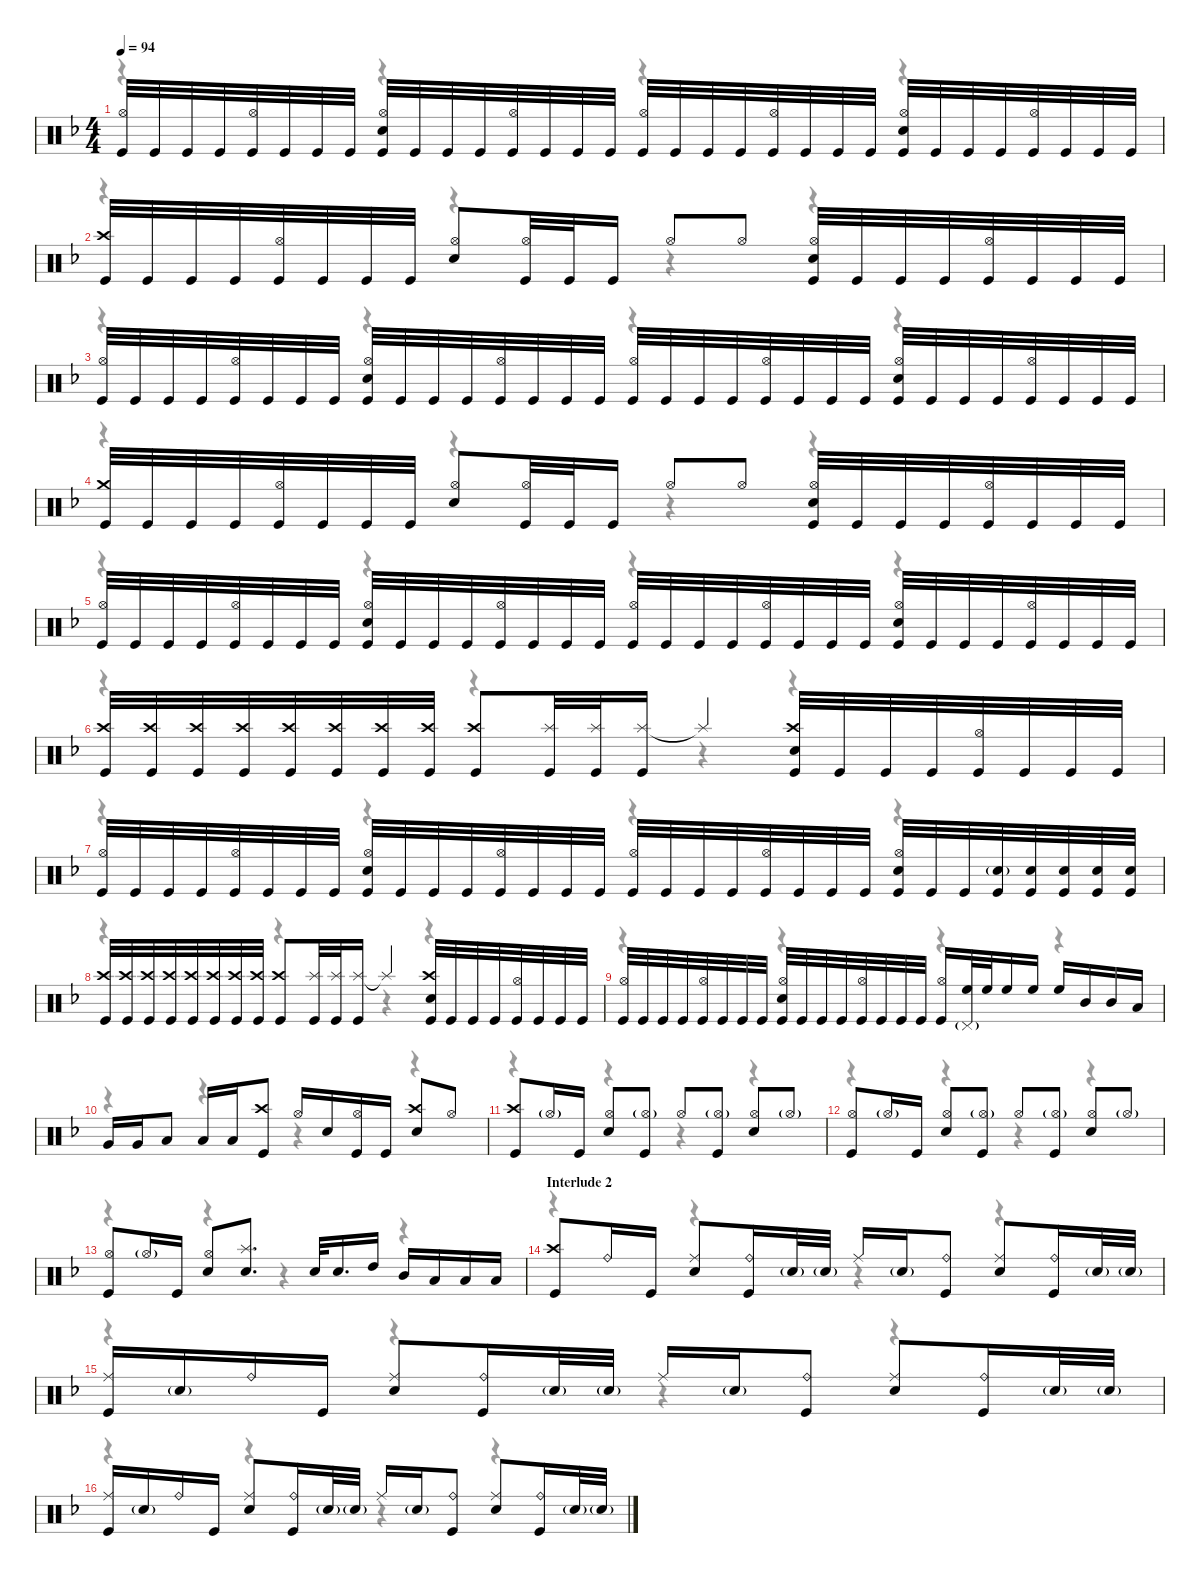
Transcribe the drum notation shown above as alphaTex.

\defaultSystemsLayout 4
\hideDynamics
\bracketExtendMode nobrackets
\singleTrackTrackNamePolicy hidden
\multiTrackTrackNamePolicy hidden
\otherSystemsTrackNameOrientation horizontal
\track ("M. Lopez" "drm.") {instrument percussion}
\staff {score}
\articulation defaults
\voice
\ts (4 4)
\tempo 94
\clef neutral
\ks dminor
("Hi-Hat (open)"{acc forcenatural} "Kick (hit)"{acc forcenatural}).32{dy f beam Up} "Kick (hit)"{acc forcenatural}.32{beam Up} "Kick (hit)"{acc forcenatural}.32{beam Up} "Kick (hit)"{acc forcenatural}.32{beam Up} ("Hi-Hat (open)"{acc forcenatural} "Kick (hit)"{acc forcenatural}).32{beam Up} "Kick (hit)"{acc forcenatural}.32{beam Up} "Kick (hit)"{acc forcenatural}.32{beam Up} "Kick (hit)"{acc forcenatural}.32{beam Up} ("Hi-Hat (open)"{acc forcenatural} "Snare (hit) 2"{acc forcenatural} "Kick (hit)"{acc forcenatural}).32{beam Up} "Kick (hit)"{acc forcenatural}.32{beam Up} "Kick (hit)"{acc forcenatural}.32{beam Up} "Kick (hit)"{acc forcenatural}.32{beam Up} ("Hi-Hat (open)"{acc forcenatural} "Kick (hit)"{acc forcenatural}).32{beam Up} "Kick (hit)"{acc forcenatural}.32{beam Up} "Kick (hit)"{acc forcenatural}.32{beam Up} "Kick (hit)"{acc forcenatural}.32{beam Up} ("Hi-Hat (open)"{acc forcenatural} "Kick (hit)"{acc forcenatural}).32{beam Up} "Kick (hit)"{acc forcenatural}.32{beam Up} "Kick (hit)"{acc forcenatural}.32{beam Up} "Kick (hit)"{acc forcenatural}.32{beam Up} ("Hi-Hat (open)"{acc forcenatural} "Kick (hit)"{acc forcenatural}).32{beam Up} "Kick (hit)"{acc forcenatural}.32{beam Up} "Kick (hit)"{acc forcenatural}.32{beam Up} "Kick (hit)"{acc forcenatural}.32{beam Up} ("Hi-Hat (open)"{acc forcenatural} "Snare (hit) 2"{acc forcenatural} "Kick (hit)"{acc forcenatural}).32{beam Up} "Kick (hit)"{acc forcenatural}.32{beam Up} "Kick (hit)"{acc forcenatural}.32{beam Up} "Kick (hit)"{acc forcenatural}.32{beam Up} ("Hi-Hat (open)"{acc forcenatural} "Kick (hit)"{acc forcenatural}).32{beam Up} "Kick (hit)"{acc forcenatural}.32{beam Up} "Kick (hit)"{acc forcenatural}.32{beam Up} "Kick (hit)"{acc forcenatural}.32{beam Up} |
("Crash high (hit)"{acc forcenatural} "Kick (hit)"{acc forcenatural}).32{beam Up} "Kick (hit)"{acc forcenatural}.32{beam Up} "Kick (hit)"{acc forcenatural}.32{beam Up} "Kick (hit)"{acc forcenatural}.32{beam Up} ("Hi-Hat (open)"{acc forcenatural} "Kick (hit)"{acc forcenatural}).32{beam Up} "Kick (hit)"{acc forcenatural}.32{beam Up} "Kick (hit)"{acc forcenatural}.32{beam Up} "Kick (hit)"{acc forcenatural}.32{beam Up} ("Hi-Hat (open)"{acc forcenatural} "Snare (hit) 2"{acc forcenatural}).8{beam Up} ("Hi-Hat (open)"{acc forcenatural} "Kick (hit)"{acc forcenatural}).32{beam Up} "Kick (hit)"{acc forcenatural}.32{beam Up} "Kick (hit)"{acc forcenatural}.16{beam Up} "Hi-Hat (open)"{acc forcenatural}.8{beam Up} "Hi-Hat (open)"{acc forcenatural}.8{beam Up} ("Hi-Hat (open)"{acc forcenatural} "Snare (hit) 2"{acc forcenatural} "Kick (hit)"{acc forcenatural}).32{beam Up} "Kick (hit)"{acc forcenatural}.32{beam Up} "Kick (hit)"{acc forcenatural}.32{beam Up} "Kick (hit)"{acc forcenatural}.32{beam Up} ("Hi-Hat (open)"{acc forcenatural} "Kick (hit)"{acc forcenatural}).32{beam Up} "Kick (hit)"{acc forcenatural}.32{beam Up} "Kick (hit)"{acc forcenatural}.32{beam Up} "Kick (hit)"{acc forcenatural}.32{beam Up} |
("Hi-Hat (open)"{acc forcenatural} "Kick (hit)"{acc forcenatural}).32{beam Up} "Kick (hit)"{acc forcenatural}.32{beam Up} "Kick (hit)"{acc forcenatural}.32{beam Up} "Kick (hit)"{acc forcenatural}.32{beam Up} ("Hi-Hat (open)"{acc forcenatural} "Kick (hit)"{acc forcenatural}).32{beam Up} "Kick (hit)"{acc forcenatural}.32{beam Up} "Kick (hit)"{acc forcenatural}.32{beam Up} "Kick (hit)"{acc forcenatural}.32{beam Up} ("Hi-Hat (open)"{acc forcenatural} "Snare (hit) 2"{acc forcenatural} "Kick (hit)"{acc forcenatural}).32{beam Up} "Kick (hit)"{acc forcenatural}.32{beam Up} "Kick (hit)"{acc forcenatural}.32{beam Up} "Kick (hit)"{acc forcenatural}.32{beam Up} ("Hi-Hat (open)"{acc forcenatural} "Kick (hit)"{acc forcenatural}).32{beam Up} "Kick (hit)"{acc forcenatural}.32{beam Up} "Kick (hit)"{acc forcenatural}.32{beam Up} "Kick (hit)"{acc forcenatural}.32{beam Up} ("Hi-Hat (open)"{acc forcenatural} "Kick (hit)"{acc forcenatural}).32{beam Up} "Kick (hit)"{acc forcenatural}.32{beam Up} "Kick (hit)"{acc forcenatural}.32{beam Up} "Kick (hit)"{acc forcenatural}.32{beam Up} ("Hi-Hat (open)"{acc forcenatural} "Kick (hit)"{acc forcenatural}).32{beam Up} "Kick (hit)"{acc forcenatural}.32{beam Up} "Kick (hit)"{acc forcenatural}.32{beam Up} "Kick (hit)"{acc forcenatural}.32{beam Up} ("Hi-Hat (open)"{acc forcenatural} "Snare (hit) 2"{acc forcenatural} "Kick (hit)"{acc forcenatural}).32{beam Up} "Kick (hit)"{acc forcenatural}.32{beam Up} "Kick (hit)"{acc forcenatural}.32{beam Up} "Kick (hit)"{acc forcenatural}.32{beam Up} ("Hi-Hat (open)"{acc forcenatural} "Kick (hit)"{acc forcenatural}).32{beam Up} "Kick (hit)"{acc forcenatural}.32{beam Up} "Kick (hit)"{acc forcenatural}.32{beam Up} "Kick (hit)"{acc forcenatural}.32{beam Up} |
("Crash medium (hit)"{acc forcenatural} "Kick (hit)"{acc forcenatural}).32{beam Up} "Kick (hit)"{acc forcenatural}.32{beam Up} "Kick (hit)"{acc forcenatural}.32{beam Up} "Kick (hit)"{acc forcenatural}.32{beam Up} ("Hi-Hat (open)"{acc forcenatural} "Kick (hit)"{acc forcenatural}).32{beam Up} "Kick (hit)"{acc forcenatural}.32{beam Up} "Kick (hit)"{acc forcenatural}.32{beam Up} "Kick (hit)"{acc forcenatural}.32{beam Up} ("Hi-Hat (open)"{acc forcenatural} "Snare (hit) 2"{acc forcenatural}).8{beam Up} ("Hi-Hat (open)"{acc forcenatural} "Kick (hit)"{acc forcenatural}).32{beam Up} "Kick (hit)"{acc forcenatural}.32{beam Up} "Kick (hit)"{acc forcenatural}.16{beam Up} "Hi-Hat (open)"{acc forcenatural}.8{beam Up} "Hi-Hat (open)"{acc forcenatural}.8{beam Up} ("Hi-Hat (open)"{acc forcenatural} "Snare (hit) 2"{acc forcenatural} "Kick (hit)"{acc forcenatural}).32{beam Up} "Kick (hit)"{acc forcenatural}.32{beam Up} "Kick (hit)"{acc forcenatural}.32{beam Up} "Kick (hit)"{acc forcenatural}.32{beam Up} ("Hi-Hat (open)"{acc forcenatural} "Kick (hit)"{acc forcenatural}).32{beam Up} "Kick (hit)"{acc forcenatural}.32{beam Up} "Kick (hit)"{acc forcenatural}.32{beam Up} "Kick (hit)"{acc forcenatural}.32{beam Up} |
("Hi-Hat (open)"{acc forcenatural} "Kick (hit)"{acc forcenatural}).32{beam Up} "Kick (hit)"{acc forcenatural}.32{beam Up} "Kick (hit)"{acc forcenatural}.32{beam Up} "Kick (hit)"{acc forcenatural}.32{beam Up} ("Hi-Hat (open)"{acc forcenatural} "Kick (hit)"{acc forcenatural}).32{beam Up} "Kick (hit)"{acc forcenatural}.32{beam Up} "Kick (hit)"{acc forcenatural}.32{beam Up} "Kick (hit)"{acc forcenatural}.32{beam Up} ("Hi-Hat (open)"{acc forcenatural} "Snare (hit) 2"{acc forcenatural} "Kick (hit)"{acc forcenatural}).32{beam Up} "Kick (hit)"{acc forcenatural}.32{beam Up} "Kick (hit)"{acc forcenatural}.32{beam Up} "Kick (hit)"{acc forcenatural}.32{beam Up} ("Hi-Hat (open)"{acc forcenatural} "Kick (hit)"{acc forcenatural}).32{beam Up} "Kick (hit)"{acc forcenatural}.32{beam Up} "Kick (hit)"{acc forcenatural}.32{beam Up} "Kick (hit)"{acc forcenatural}.32{beam Up} ("Hi-Hat (open)"{acc forcenatural} "Kick (hit)"{acc forcenatural}).32{beam Up} "Kick (hit)"{acc forcenatural}.32{beam Up} "Kick (hit)"{acc forcenatural}.32{beam Up} "Kick (hit)"{acc forcenatural}.32{beam Up} ("Hi-Hat (open)"{acc forcenatural} "Kick (hit)"{acc forcenatural}).32{beam Up} "Kick (hit)"{acc forcenatural}.32{beam Up} "Kick (hit)"{acc forcenatural}.32{beam Up} "Kick (hit)"{acc forcenatural}.32{beam Up} ("Hi-Hat (open)"{acc forcenatural} "Snare (hit) 2"{acc forcenatural} "Kick (hit)"{acc forcenatural}).32{beam Up} "Kick (hit)"{acc forcenatural}.32{beam Up} "Kick (hit)"{acc forcenatural}.32{beam Up} "Kick (hit)"{acc forcenatural}.32{beam Up} ("Hi-Hat (open)"{acc forcenatural} "Kick (hit)"{acc forcenatural}).32{beam Up} "Kick (hit)"{acc forcenatural}.32{beam Up} "Kick (hit)"{acc forcenatural}.32{beam Up} "Kick (hit)"{acc forcenatural}.32{beam Up} |
("Crash high (hit)"{acc forcenatural} "Kick (hit)"{acc forcenatural}).32{dy mf beam Up} ("Crash high (hit)"{acc forcenatural} "Kick (hit)"{acc forcenatural}).32{beam Up} ("Crash high (hit)"{acc forcenatural} "Kick (hit)"{acc forcenatural}).32{beam Up} ("Crash high (hit)"{acc forcenatural} "Kick (hit)"{acc forcenatural}).32{beam Up} ("Crash high (hit)"{acc forcenatural} "Kick (hit)"{acc forcenatural}).32{beam Up} ("Crash high (hit)"{acc forcenatural} "Kick (hit)"{acc forcenatural}).32{beam Up} ("Crash high (hit)"{acc forcenatural} "Kick (hit)"{acc forcenatural}).32{beam Up} ("Crash high (hit)"{acc forcenatural} "Kick (hit)"{acc forcenatural}).32{beam Up} ("Crash high (hit)"{acc forcenatural} "Kick (hit)"{acc forcenatural}).8{beam Up} ("Splash (hit)"{acc forcenatural} "Kick (hit)"{acc forcenatural}).32{dy f beam Up} ("Splash (hit)"{acc forcenatural} "Kick (hit)"{acc forcenatural}).32{beam Up} ("Splash (hit)"{acc forcenatural} "Kick (hit)"{acc forcenatural}).16{beam Up} "Splash (hit)"{t acc forcenatural}.4{beam Up} ("Crash high (hit)"{acc forcenatural} "Snare (hit) 2"{acc forcenatural} "Kick (hit)"{acc forcenatural}).32{beam Up} "Kick (hit)"{acc forcenatural}.32{beam Up} "Kick (hit)"{acc forcenatural}.32{beam Up} "Kick (hit)"{acc forcenatural}.32{beam Up} ("Hi-Hat (open)"{acc forcenatural} "Kick (hit)"{acc forcenatural}).32{beam Up} "Kick (hit)"{acc forcenatural}.32{beam Up} "Kick (hit)"{acc forcenatural}.32{beam Up} "Kick (hit)"{acc forcenatural}.32{beam Up} |
("Hi-Hat (open)"{acc forcenatural} "Kick (hit)"{acc forcenatural}).32{beam Up} "Kick (hit)"{acc forcenatural}.32{beam Up} "Kick (hit)"{acc forcenatural}.32{beam Up} "Kick (hit)"{acc forcenatural}.32{beam Up} ("Hi-Hat (open)"{acc forcenatural} "Kick (hit)"{acc forcenatural}).32{beam Up} "Kick (hit)"{acc forcenatural}.32{beam Up} "Kick (hit)"{acc forcenatural}.32{beam Up} "Kick (hit)"{acc forcenatural}.32{beam Up} ("Hi-Hat (open)"{acc forcenatural} "Snare (hit) 2"{acc forcenatural} "Kick (hit)"{acc forcenatural}).32{beam Up} "Kick (hit)"{acc forcenatural}.32{beam Up} "Kick (hit)"{acc forcenatural}.32{beam Up} "Kick (hit)"{acc forcenatural}.32{beam Up} ("Hi-Hat (open)"{acc forcenatural} "Kick (hit)"{acc forcenatural}).32{beam Up} "Kick (hit)"{acc forcenatural}.32{beam Up} "Kick (hit)"{acc forcenatural}.32{beam Up} "Kick (hit)"{acc forcenatural}.32{beam Up} ("Hi-Hat (open)"{acc forcenatural} "Kick (hit)"{acc forcenatural}).32{beam Up} "Kick (hit)"{acc forcenatural}.32{beam Up} "Kick (hit)"{acc forcenatural}.32{beam Up} "Kick (hit)"{acc forcenatural}.32{beam Up} ("Hi-Hat (open)"{acc forcenatural} "Kick (hit)"{acc forcenatural}).32{beam Up} "Kick (hit)"{acc forcenatural}.32{beam Up} "Kick (hit)"{acc forcenatural}.32{beam Up} "Kick (hit)"{acc forcenatural}.32{beam Up} ("Hi-Hat (open)"{acc forcenatural} "Snare (hit) 2"{acc forcenatural} "Kick (hit)"{acc forcenatural}).32{beam Up} "Kick (hit)"{acc forcenatural}.32{beam Up} "Kick (hit)"{acc forcenatural}.32{beam Up} ("Snare (hit) 2"{g acc forcenatural} "Kick (hit)"{acc forcenatural}).32{beam Up} ("Snare (hit) 2"{acc forcenatural} "Kick (hit)"{acc forcenatural}).32{dy mf beam Up} ("Snare (hit) 2"{acc forcenatural} "Kick (hit)"{acc forcenatural}).32{dy f beam Up} ("Snare (hit) 2"{acc forcenatural} "Kick (hit)"{acc forcenatural}).32{beam Up} ("Snare (hit) 2"{acc forcenatural} "Kick (hit)"{acc forcenatural}).32{beam Up} |
("Crash high (hit)"{acc forcenatural} "Kick (hit)"{acc forcenatural}).32{dy mf beam Up} ("Crash high (hit)"{acc forcenatural} "Kick (hit)"{acc forcenatural}).32{beam Up} ("Crash high (hit)"{acc forcenatural} "Kick (hit)"{acc forcenatural}).32{beam Up} ("Crash high (hit)"{acc forcenatural} "Kick (hit)"{acc forcenatural}).32{beam Up} ("Crash high (hit)"{acc forcenatural} "Kick (hit)"{acc forcenatural}).32{beam Up} ("Crash high (hit)"{acc forcenatural} "Kick (hit)"{acc forcenatural}).32{beam Up} ("Crash high (hit)"{acc forcenatural} "Kick (hit)"{acc forcenatural}).32{beam Up} ("Crash high (hit)"{acc forcenatural} "Kick (hit)"{acc forcenatural}).32{beam Up} ("Crash high (hit)"{acc forcenatural} "Kick (hit)"{acc forcenatural}).8{beam Up} ("Splash (hit)"{acc forcenatural} "Kick (hit)"{acc forcenatural}).32{dy f beam Up} ("Splash (hit)"{acc forcenatural} "Kick (hit)"{acc forcenatural}).32{beam Up} ("Splash (hit)"{acc forcenatural} "Kick (hit)"{acc forcenatural}).16{beam Up} "Splash (hit)"{t acc forcenatural}.4{beam Up} ("Crash high (hit)"{acc forcenatural} "Snare (hit) 2"{acc forcenatural} "Kick (hit)"{acc forcenatural}).32{beam Up} "Kick (hit)"{acc forcenatural}.32{beam Up} "Kick (hit)"{acc forcenatural}.32{beam Up} "Kick (hit)"{acc forcenatural}.32{beam Up} ("Hi-Hat (open)"{acc forcenatural} "Kick (hit)"{acc forcenatural}).32{beam Up} "Kick (hit)"{acc forcenatural}.32{beam Up} "Kick (hit)"{acc forcenatural}.32{beam Up} "Kick (hit)"{acc forcenatural}.32{beam Up} |
("Hi-Hat (open)"{acc forcenatural} "Kick (hit)"{acc forcenatural}).32{beam Up} "Kick (hit)"{acc forcenatural}.32{beam Up} "Kick (hit)"{acc forcenatural}.32{beam Up} "Kick (hit)"{acc forcenatural}.32{beam Up} ("Hi-Hat (open)"{acc forcenatural} "Kick (hit)"{acc forcenatural}).32{beam Up} "Kick (hit)"{acc forcenatural}.32{beam Up} "Kick (hit)"{acc forcenatural}.32{beam Up} "Kick (hit)"{acc forcenatural}.32{beam Up} ("Hi-Hat (open)"{acc forcenatural} "Snare (hit) 2"{acc forcenatural} "Kick (hit)"{acc forcenatural}).32{beam Up} "Kick (hit)"{acc forcenatural}.32{beam Up} "Kick (hit)"{acc forcenatural}.32{beam Up} "Kick (hit)"{acc forcenatural}.32{beam Up} ("Hi-Hat (open)"{acc forcenatural} "Kick (hit)"{acc forcenatural}).32{beam Up} "Kick (hit)"{acc forcenatural}.32{beam Up} "Kick (hit)"{acc forcenatural}.32{beam Up} "Kick (hit)"{acc forcenatural}.32{beam Up} ("Hi-Hat (open)"{acc forcenatural} "Kick (hit)"{acc forcenatural}).16{beam Up} ("Pedal Hi-Hat (hit)"{g acc forcenatural} "High Floor Tom (hit)"{acc forcenatural}).32{dy mf beam Up} "High Floor Tom (hit)"{acc forcenatural}.32{beam Up} "High Floor Tom (hit)"{acc forcenatural}.16{dy f beam Up} "High Floor Tom (hit)"{acc forcenatural}.16{beam Up} "High Floor Tom (hit)"{acc forcenatural}.16{beam Up} "Mid Tom (hit)"{acc forcenatural}.16{beam Up} "Mid Tom (hit)"{acc forcenatural}.16{beam Up} "Low Tom (hit)"{acc forcenatural}.16{beam Up} |
"Very Low Tom (hit)"{acc forcenatural}.16{beam Up} "Very Low Tom (hit)"{acc forcenatural}.16{beam Up} "Low Floor Tom (hit)"{acc forcenatural}.8{beam Up} "Low Floor Tom (hit)"{acc forcenatural}.16{beam Up} "Low Floor Tom (hit)"{acc forcenatural}.16{beam Up} ("Crash high (hit)"{acc forcenatural} "Kick (hit)"{acc forcenatural}).8{beam Up} "Hi-Hat (open)"{acc forcenatural}.16{beam Up} "Snare (hit) 2"{acc forcenatural}.16{beam Up} ("Hi-Hat (open)"{acc forcenatural} "Kick (hit)"{acc forcenatural}).16{beam Up} "Kick (hit)"{acc forcenatural}.16{beam Up} ("Crash high (hit)"{acc forcenatural} "Snare (hit) 2"{acc forcenatural}).8{beam Up} "Hi-Hat (open)"{acc forcenatural}.8{beam Up} |
("Crash high (hit)"{acc forcenatural} "Kick (hit)"{acc forcenatural}).8{beam Up} "Hi-Hat (open)"{g acc forcenatural}.16{dy ff beam Up} "Kick (hit)"{acc forcenatural}.16{dy f beam Up} ("Hi-Hat (open)"{acc forcenatural} "Snare (hit) 2"{acc forcenatural}).8{beam Up} ("Hi-Hat (open)"{g acc forcenatural} "Kick (hit)"{acc forcenatural}).8{beam Up} "Hi-Hat (open)"{acc forcenatural}.8{beam Up} ("Hi-Hat (open)"{g acc forcenatural} "Kick (hit)"{acc forcenatural}).8{beam Up} ("Hi-Hat (open)"{acc forcenatural} "Snare (hit) 2"{acc forcenatural}).8{beam Up} "Hi-Hat (open)"{g acc forcenatural}.8{dy ff beam Up} |
("Hi-Hat (open)"{acc forcenatural} "Kick (hit)"{acc forcenatural}).8{dy f beam Up} "Hi-Hat (open)"{g acc forcenatural}.16{dy ff beam Up} "Kick (hit)"{acc forcenatural}.16{dy f beam Up} ("Hi-Hat (open)"{acc forcenatural} "Snare (hit) 2"{acc forcenatural}).8{beam Up} ("Hi-Hat (open)"{g acc forcenatural} "Kick (hit)"{acc forcenatural}).8{beam Up} "Hi-Hat (open)"{acc forcenatural}.8{beam Up} ("Hi-Hat (open)"{g acc forcenatural} "Kick (hit)"{acc forcenatural}).8{beam Up} ("Hi-Hat (open)"{acc forcenatural} "Snare (hit) 2"{acc forcenatural}).8{beam Up} "Hi-Hat (open)"{g acc forcenatural}.8{dy ff beam Up} |
("Hi-Hat (open)"{acc forcenatural} "Kick (hit)"{acc forcenatural}).8{dy f beam Up} "Hi-Hat (open)"{g acc forcenatural}.16{dy ff beam Up} "Kick (hit)"{acc forcenatural}.16{dy f beam Up} ("Hi-Hat (open)"{acc forcenatural} "Snare (hit) 2"{acc forcenatural}).8{beam Up} ("Splash (hit)"{acc forcenatural} "Snare (hit) 2"{acc forcenatural}).8{d beam Up} "Snare (hit) 2"{acc forcenatural}.32{beam Up} "Snare (hit) 2"{acc forcenatural}.16{d beam Up} "High Tom (hit)"{acc forcenatural}.16{beam Up} "Mid Tom (hit)"{acc forcenatural}.16{beam Up} "Low Tom (hit)"{acc forcenatural}.16{beam Up} "Low Tom (hit)"{acc forcenatural}.16{beam Up} "Low Tom (hit)"{acc forcenatural}.16{beam Up} |
\section ("" "Interlude 2")
("Crash high (hit)"{acc forcenatural} "Kick (hit)"{acc forcenatural}).8{beam Up} "Ride (bell)"{acc forcenatural}.16{beam Up} "Kick (hit)"{acc forcenatural}.16{beam Up} ("Ride (middle)"{acc forcenatural} "Snare (hit) 2"{acc forcenatural}).8{beam Up} ("Ride (bell)"{acc forcenatural} "Kick (hit)"{acc forcenatural}).16{beam Up} "Snare (hit) 2"{g acc forcenatural}.32{dy mf beam Up} "Snare (hit) 2"{g acc forcenatural}.32{beam Up} "Ride (middle)"{acc forcenatural}.16{dy f beam Up} "Snare (hit) 2"{g acc forcenatural}.16{dy ff beam Up} ("Ride (bell)"{acc forcenatural} "Kick (hit)"{acc forcenatural}).8{dy f beam Up} ("Ride (middle)"{acc forcenatural} "Snare (hit) 2"{acc forcenatural}).8{beam Up} ("Ride (bell)"{acc forcenatural} "Kick (hit)"{acc forcenatural}).16{beam Up} "Snare (hit) 2"{g acc forcenatural}.32{dy mf beam Up} "Snare (hit) 2"{g acc forcenatural}.32{beam Up} |
("Ride (middle)"{acc forcenatural} "Kick (hit)"{acc forcenatural}).16{dy f beam Up} "Snare (hit) 2"{g acc forcenatural}.16{dy ff beam Up} "Ride (bell)"{acc forcenatural}.16{dy f beam Up} "Kick (hit)"{acc forcenatural}.16{beam Up} ("Ride (middle)"{acc forcenatural} "Snare (hit) 2"{acc forcenatural}).8{beam Up} ("Ride (bell)"{acc forcenatural} "Kick (hit)"{acc forcenatural}).16{beam Up} "Snare (hit) 2"{g acc forcenatural}.32{dy mf beam Up} "Snare (hit) 2"{g acc forcenatural}.32{beam Up} "Ride (middle)"{acc forcenatural}.16{dy f beam Up} "Snare (hit) 2"{g acc forcenatural}.16{dy ff beam Up} ("Ride (bell)"{acc forcenatural} "Kick (hit)"{acc forcenatural}).8{dy f beam Up} ("Ride (middle)"{acc forcenatural} "Snare (hit) 2"{acc forcenatural}).8{beam Up} ("Ride (bell)"{acc forcenatural} "Kick (hit)"{acc forcenatural}).16{beam Up} "Snare (hit) 2"{g acc forcenatural}.32{dy mf beam Up} "Snare (hit) 2"{g acc forcenatural}.32{beam Up} |
("Ride (middle)"{acc forcenatural} "Kick (hit)"{acc forcenatural}).16{dy f beam Up} "Snare (hit) 2"{g acc forcenatural}.16{dy ff beam Up} "Ride (bell)"{acc forcenatural}.16{dy f beam Up} "Kick (hit)"{acc forcenatural}.16{beam Up} ("Ride (middle)"{acc forcenatural} "Snare (hit) 2"{acc forcenatural}).8{beam Up} ("Ride (bell)"{acc forcenatural} "Kick (hit)"{acc forcenatural}).16{beam Up} "Snare (hit) 2"{g acc forcenatural}.32{dy mf beam Up} "Snare (hit) 2"{g acc forcenatural}.32{beam Up} "Ride (middle)"{acc forcenatural}.16{dy f beam Up} "Snare (hit) 2"{g acc forcenatural}.16{dy ff beam Up} ("Ride (bell)"{acc forcenatural} "Kick (hit)"{acc forcenatural}).8{dy f beam Up} ("Ride (middle)"{acc forcenatural} "Snare (hit) 2"{acc forcenatural}).8{beam Up} ("Ride (bell)"{acc forcenatural} "Kick (hit)"{acc forcenatural}).16{beam Up} "Snare (hit) 2"{g acc forcenatural}.32{dy mf beam Up} "Snare (hit) 2"{g acc forcenatural}.32{beam Up}
\voice
\clef neutral
\ottava regular
\simile none
\ks dminor
r.4{dy mf beam Down} r.4{beam Down} r.4{beam Down} r.4{beam Down} |
r.4{beam Down} r.4{beam Down} r.4{beam Down} r.4{beam Down} |
r.4{beam Down} r.4{beam Down} r.4{beam Down} r.4{beam Down} |
r.4{beam Down} r.4{beam Down} r.4{beam Down} r.4{beam Down} |
r.4{beam Down} r.4{beam Down} r.4{beam Down} r.4{beam Down} |
r.4{beam Down} r.4{beam Down} r.4{beam Down} r.4{beam Down} |
r.4{beam Down} r.4{beam Down} r.4{beam Down} r.4{beam Down} |
r.4{beam Down} r.4{beam Down} r.4{beam Down} r.4{beam Down} |
r.4{beam Down} r.4{beam Down} r.4{beam Down} r.4{beam Down} |
r.4{beam Down} r.4{beam Down} r.4{beam Down} r.4{beam Down} |
r.4{beam Down} r.4{beam Down} r.4{beam Down} r.4{beam Down} |
r.4{beam Down} r.4{beam Down} r.4{beam Down} r.4{beam Down} |
r.4{beam Down} r.4{beam Down} r.4{beam Down} r.4{beam Down} |
r.4{beam Down} r.4{beam Down} r.4{beam Down} r.4{beam Down} |
r.4{beam Down} r.4{beam Down} r.4{beam Down} r.4{beam Down} |
r.4{beam Down} r.4{beam Down} r.4{beam Down} r.4{beam Down}
